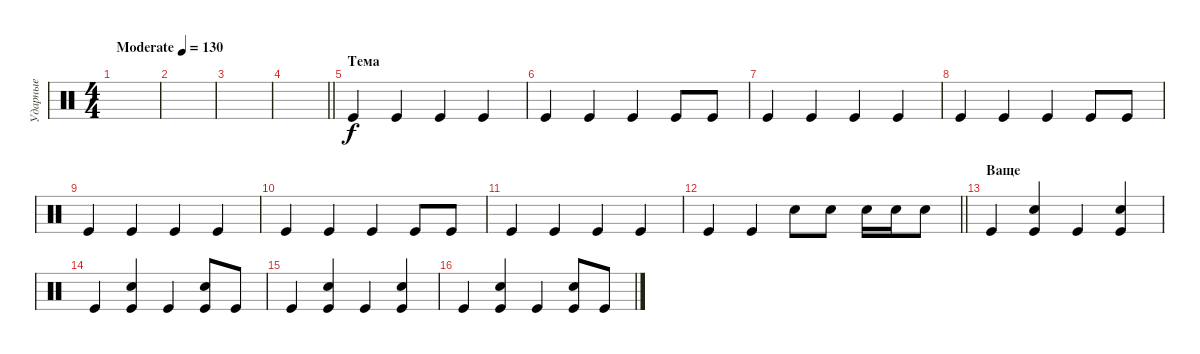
\track ("Ударные" "Ударные") {instrument percussion}
\staff {score}
\articulation defaults
\ts (4 4)
\tempo (130 "Moderate")
\clef neutral
\ks c
|
|
|
\barLineRight lightlight
|
\section ("" "Тема")
"Kick (hit)".4 "Kick (hit)".4 "Kick (hit)".4 "Kick (hit)".4 |
"Kick (hit)".4 "Kick (hit)".4 "Kick (hit)".4 "Kick (hit)".8 "Kick (hit)".8 |
"Kick (hit)".4 "Kick (hit)".4 "Kick (hit)".4 "Kick (hit)".4 |
"Kick (hit)".4 "Kick (hit)".4 "Kick (hit)".4 "Kick (hit)".8 "Kick (hit)".8 |
"Kick (hit)".4 "Kick (hit)".4 "Kick (hit)".4 "Kick (hit)".4 |
"Kick (hit)".4 "Kick (hit)".4 "Kick (hit)".4 "Kick (hit)".8 "Kick (hit)".8 |
"Kick (hit)".4 "Kick (hit)".4 "Kick (hit)".4 "Kick (hit)".4 |
\barLineRight lightlight "Kick (hit)".4 "Kick (hit)".4 "Snare (hit) 2".8 "Snare (hit) 2".8 "Snare (hit) 2".16 "Snare (hit) 2".16 "Snare (hit) 2".8
|
\section ("" "Ваще")
"Kick (hit)".4 ("Kick (hit)" "Snare (hit) 2").4 "Kick (hit)".4 ("Kick (hit)" "Snare (hit) 2").4 |
"Kick (hit)".4 ("Kick (hit)" "Snare (hit) 2").4 "Kick (hit)".4 ("Kick (hit)" "Snare (hit) 2").8 "Kick (hit)".8 |
"Kick (hit)".4 ("Kick (hit)" "Snare (hit) 2").4 "Kick (hit)".4 ("Kick (hit)" "Snare (hit) 2").4 |
"Kick (hit)".4 ("Kick (hit)" "Snare (hit) 2").4 "Kick (hit)".4 ("Kick (hit)" "Snare (hit) 2").8 "Kick (hit)".8
